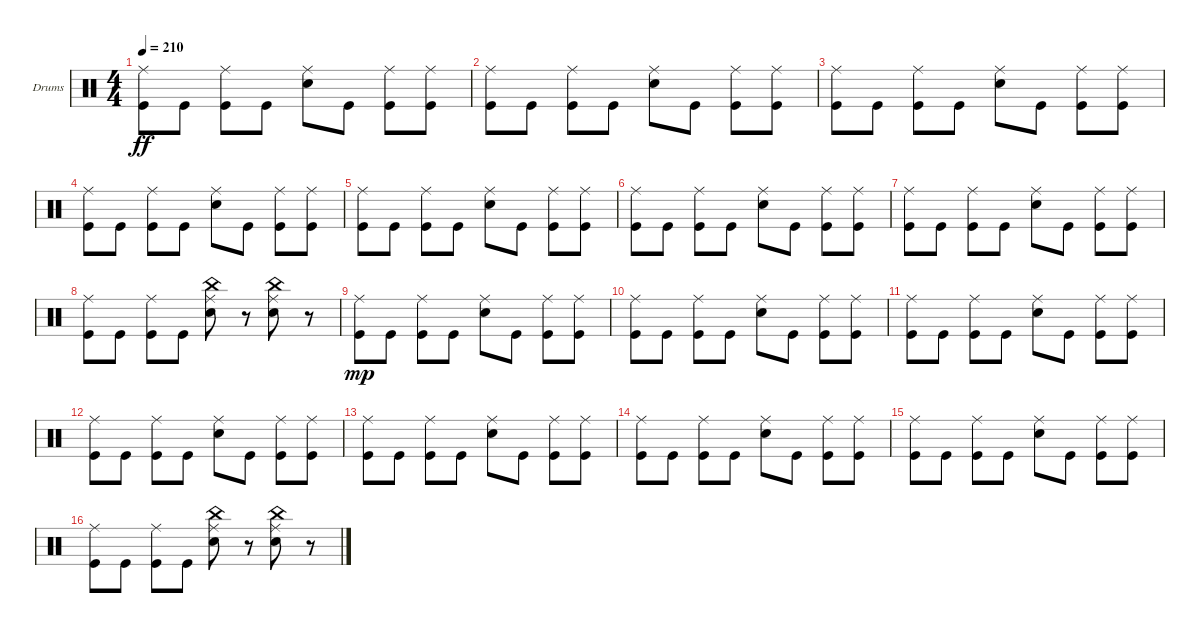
\bracketExtendMode groupsimilarinstruments
\firstSystemTrackNameOrientation horizontal
\otherSystemsTrackNameOrientation horizontal
\track ("Drumkit" "Drums") {instrument percussion}
\staff {score}
\articulation defaults
\ts (4 4)
\tempo 210
\clef neutral
\ks c
("Kick (hit)" "Ride (middle)").8{dy ff} "Kick (hit)".8 ("Kick (hit)" "Ride (middle)").8 "Kick (hit)".8 ("Snare (hit) 2" "Ride (middle)").8 "Kick (hit)".8 ("Kick (hit)" "Ride (middle)").8 ("Kick (hit)" "Ride (middle)").8 |
("Kick (hit)" "Ride (middle)").8 "Kick (hit)".8 ("Kick (hit)" "Ride (middle)").8 "Kick (hit)".8 ("Snare (hit) 2" "Ride (middle)").8 "Kick (hit)".8 ("Kick (hit)" "Ride (middle)").8 ("Kick (hit)" "Ride (middle)").8 |
("Kick (hit)" "Ride (middle)").8 "Kick (hit)".8 ("Kick (hit)" "Ride (middle)").8 "Kick (hit)".8 ("Snare (hit) 2" "Ride (middle)").8 "Kick (hit)".8 ("Kick (hit)" "Ride (middle)").8 ("Kick (hit)" "Ride (middle)").8 |
("Kick (hit)" "Ride (middle)").8 "Kick (hit)".8 ("Kick (hit)" "Ride (middle)").8 "Kick (hit)".8 ("Snare (hit) 2" "Ride (middle)").8 "Kick (hit)".8 ("Kick (hit)" "Ride (middle)").8 ("Kick (hit)" "Ride (middle)").8 |
("Kick (hit)" "Ride (middle)").8 "Kick (hit)".8 ("Kick (hit)" "Ride (middle)").8 "Kick (hit)".8 ("Snare (hit) 2" "Ride (middle)").8 "Kick (hit)".8 ("Kick (hit)" "Ride (middle)").8 ("Kick (hit)" "Ride (middle)").8 |
("Kick (hit)" "Ride (middle)").8 "Kick (hit)".8 ("Kick (hit)" "Ride (middle)").8 "Kick (hit)".8 ("Snare (hit) 2" "Ride (middle)").8 "Kick (hit)".8 ("Kick (hit)" "Ride (middle)").8 ("Kick (hit)" "Ride (middle)").8 |
("Kick (hit)" "Ride (middle)").8 "Kick (hit)".8 ("Kick (hit)" "Ride (middle)").8 "Kick (hit)".8 ("Snare (hit) 2" "Ride (middle)").8 "Kick (hit)".8 ("Kick (hit)" "Ride (middle)").8 ("Kick (hit)" "Ride (middle)").8 |
("Kick (hit)" "Ride (middle)").8 "Kick (hit)".8 ("Kick (hit)" "Ride (middle)").8 "Kick (hit)".8 ("Snare (hit) 2" "Ride (middle)" "China (hit)").8 r.8 ("Ride (middle)" "Snare (hit) 2" "China (hit)").8 r.8 |
("Kick (hit)" "Ride (middle)").8{dy mp} "Kick (hit)".8 ("Kick (hit)" "Ride (middle)").8 "Kick (hit)".8 ("Snare (hit) 2" "Ride (middle)").8 "Kick (hit)".8 ("Kick (hit)" "Ride (middle)").8 ("Kick (hit)" "Ride (middle)").8 |
("Kick (hit)" "Ride (middle)").8 "Kick (hit)".8 ("Kick (hit)" "Ride (middle)").8 "Kick (hit)".8 ("Snare (hit) 2" "Ride (middle)").8 "Kick (hit)".8 ("Kick (hit)" "Ride (middle)").8 ("Kick (hit)" "Ride (middle)").8 |
("Kick (hit)" "Ride (middle)").8 "Kick (hit)".8 ("Kick (hit)" "Ride (middle)").8 "Kick (hit)".8 ("Snare (hit) 2" "Ride (middle)").8 "Kick (hit)".8 ("Kick (hit)" "Ride (middle)").8 ("Kick (hit)" "Ride (middle)").8 |
("Kick (hit)" "Ride (middle)").8 "Kick (hit)".8 ("Kick (hit)" "Ride (middle)").8 "Kick (hit)".8 ("Snare (hit) 2" "Ride (middle)").8 "Kick (hit)".8 ("Kick (hit)" "Ride (middle)").8 ("Kick (hit)" "Ride (middle)").8 |
("Kick (hit)" "Ride (middle)").8 "Kick (hit)".8 ("Kick (hit)" "Ride (middle)").8 "Kick (hit)".8 ("Snare (hit) 2" "Ride (middle)").8 "Kick (hit)".8 ("Kick (hit)" "Ride (middle)").8 ("Kick (hit)" "Ride (middle)").8 |
("Kick (hit)" "Ride (middle)").8 "Kick (hit)".8 ("Kick (hit)" "Ride (middle)").8 "Kick (hit)".8 ("Snare (hit) 2" "Ride (middle)").8 "Kick (hit)".8 ("Kick (hit)" "Ride (middle)").8 ("Kick (hit)" "Ride (middle)").8 |
("Kick (hit)" "Ride (middle)").8 "Kick (hit)".8 ("Kick (hit)" "Ride (middle)").8 "Kick (hit)".8 ("Snare (hit) 2" "Ride (middle)").8 "Kick (hit)".8 ("Kick (hit)" "Ride (middle)").8 ("Kick (hit)" "Ride (middle)").8 |
("Kick (hit)" "Ride (middle)").8 "Kick (hit)".8 ("Kick (hit)" "Ride (middle)").8 "Kick (hit)".8 ("Snare (hit) 2" "Ride (middle)" "China (hit)").8 r.8 ("Ride (middle)" "Snare (hit) 2" "China (hit)").8 r.8
